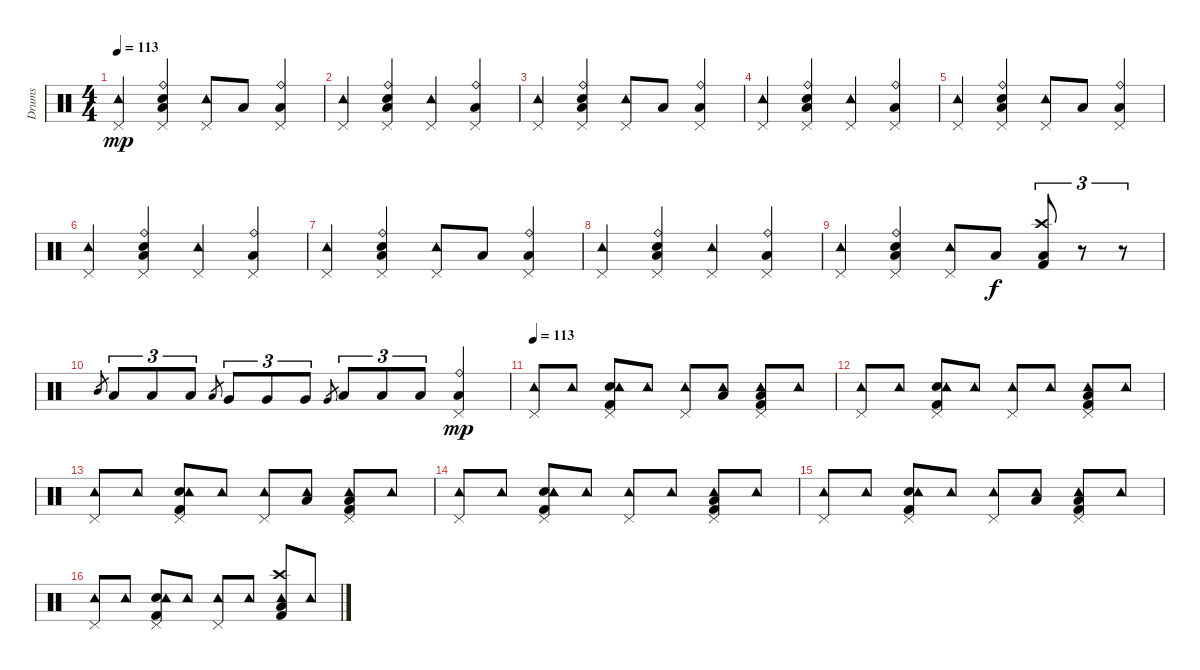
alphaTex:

\track ("Drums" "Drums") {instrument percussion}
\staff {score}
\articulation defaults
\ts (4 4)
\tempo 113
\clef neutral
\ks c
("Pedal Hi-Hat (hit)" "Tambourine (hit)").4{dy mp} ("Pedal Hi-Hat (hit)" "Snare (hit) 2" "Low Floor Tom (hit)" "Ride (bell)").4 ("Pedal Hi-Hat (hit)" "Tambourine (hit)").8 "Low Floor Tom (hit)".8 ("Pedal Hi-Hat (hit)" "Low Floor Tom (hit)" "Ride (bell)").4 |
("Pedal Hi-Hat (hit)" "Tambourine (hit)").4 ("Pedal Hi-Hat (hit)" "Snare (hit) 2" "Low Floor Tom (hit)" "Ride (bell)").4 ("Pedal Hi-Hat (hit)" "Tambourine (hit)").4 ("Pedal Hi-Hat (hit)" "Low Floor Tom (hit)" "Ride (bell)").4 |
("Pedal Hi-Hat (hit)" "Tambourine (hit)").4 ("Pedal Hi-Hat (hit)" "Snare (hit) 2" "Low Floor Tom (hit)" "Ride (bell)").4 ("Pedal Hi-Hat (hit)" "Tambourine (hit)").8 "Low Floor Tom (hit)".8 ("Pedal Hi-Hat (hit)" "Low Floor Tom (hit)" "Ride (bell)").4 |
("Pedal Hi-Hat (hit)" "Tambourine (hit)").4 ("Pedal Hi-Hat (hit)" "Snare (hit) 2" "Low Floor Tom (hit)" "Ride (bell)").4 ("Pedal Hi-Hat (hit)" "Tambourine (hit)").4 ("Pedal Hi-Hat (hit)" "Low Floor Tom (hit)" "Ride (bell)").4 |
("Pedal Hi-Hat (hit)" "Tambourine (hit)").4 ("Pedal Hi-Hat (hit)" "Snare (hit) 2" "Low Floor Tom (hit)" "Ride (bell)").4 ("Pedal Hi-Hat (hit)" "Tambourine (hit)").8 "Low Floor Tom (hit)".8 ("Pedal Hi-Hat (hit)" "Low Floor Tom (hit)" "Ride (bell)").4 |
("Pedal Hi-Hat (hit)" "Tambourine (hit)").4 ("Pedal Hi-Hat (hit)" "Snare (hit) 2" "Low Floor Tom (hit)" "Ride (bell)").4 ("Pedal Hi-Hat (hit)" "Tambourine (hit)").4 ("Pedal Hi-Hat (hit)" "Low Floor Tom (hit)" "Ride (bell)").4 |
("Pedal Hi-Hat (hit)" "Tambourine (hit)").4 ("Pedal Hi-Hat (hit)" "Snare (hit) 2" "Low Floor Tom (hit)" "Ride (bell)").4 ("Pedal Hi-Hat (hit)" "Tambourine (hit)").8 "Low Floor Tom (hit)".8 ("Pedal Hi-Hat (hit)" "Low Floor Tom (hit)" "Ride (bell)").4 |
("Pedal Hi-Hat (hit)" "Tambourine (hit)").4 ("Pedal Hi-Hat (hit)" "Snare (hit) 2" "Low Floor Tom (hit)" "Ride (bell)").4 ("Pedal Hi-Hat (hit)" "Tambourine (hit)").4 ("Pedal Hi-Hat (hit)" "Low Floor Tom (hit)" "Ride (bell)").4 |
("Pedal Hi-Hat (hit)" "Tambourine (hit)").4 ("Pedal Hi-Hat (hit)" "Snare (hit) 2" "Low Floor Tom (hit)" "Ride (bell)").4 ("Pedal Hi-Hat (hit)" "Tambourine (hit)").8 "Low Floor Tom (hit)".8{dy f} ("Crash high (hit)" "Kick (hit) 2" "Low Floor Tom (hit)").8{tu (3 2)} r.8{tu (3 2)} r.8{tu (3 2)} |
"Mid Tom (hit)".8{gr} "Low Tom (hit)".8{tu (3 2)} "Low Tom (hit)".8{tu (3 2)} "Low Tom (hit)".8{tu (3 2)} "Low Tom (hit)".8{gr} "Very Low Tom (hit)".8{tu (3 2)} "Very Low Tom (hit)".8{tu (3 2)} "Very Low Tom (hit)".8{tu (3 2)} "Very Low Tom (hit)".8{gr} "Low Floor Tom (hit)".8{tu (3 2)} "Low Floor Tom (hit)".8{tu (3 2)} "Low Floor Tom (hit)".8{tu (3 2)} ("Pedal Hi-Hat (hit)" "Low Floor Tom (hit)" "Ride (bell)").4{dy mp} |
\tempo 113
("Pedal Hi-Hat (hit)" "Tambourine (hit)").8 "Tambourine (hit)".8 ("Pedal Hi-Hat (hit)" "Kick (hit) 2" "Electric Snare (hit)" "Tambourine (hit)").8 "Tambourine (hit)".8 ("Pedal Hi-Hat (hit)" "Tambourine (hit)").8 ("Low Floor Tom (hit)" "Tambourine (hit)").8 ("Pedal Hi-Hat (hit)" "Kick (hit) 2" "Low Floor Tom (hit)" "Tambourine (hit)").8 "Tambourine (hit)".8 |
("Pedal Hi-Hat (hit)" "Tambourine (hit)").8 "Tambourine (hit)".8 ("Pedal Hi-Hat (hit)" "Kick (hit) 2" "Electric Snare (hit)" "Tambourine (hit)").8 "Tambourine (hit)".8 ("Pedal Hi-Hat (hit)" "Tambourine (hit)").8 "Tambourine (hit)".8 ("Pedal Hi-Hat (hit)" "Kick (hit) 2" "Low Floor Tom (hit)" "Tambourine (hit)").8 "Tambourine (hit)".8 |
("Pedal Hi-Hat (hit)" "Tambourine (hit)").8 "Tambourine (hit)".8 ("Pedal Hi-Hat (hit)" "Kick (hit) 2" "Electric Snare (hit)" "Tambourine (hit)").8 "Tambourine (hit)".8 ("Pedal Hi-Hat (hit)" "Tambourine (hit)").8 ("Low Floor Tom (hit)" "Tambourine (hit)").8 ("Pedal Hi-Hat (hit)" "Kick (hit) 2" "Low Floor Tom (hit)" "Tambourine (hit)").8 "Tambourine (hit)".8 |
("Pedal Hi-Hat (hit)" "Tambourine (hit)").8 "Tambourine (hit)".8 ("Pedal Hi-Hat (hit)" "Kick (hit) 2" "Electric Snare (hit)" "Tambourine (hit)").8 "Tambourine (hit)".8 ("Pedal Hi-Hat (hit)" "Tambourine (hit)").8 "Tambourine (hit)".8 ("Pedal Hi-Hat (hit)" "Kick (hit) 2" "Low Floor Tom (hit)" "Tambourine (hit)").8 "Tambourine (hit)".8 |
("Pedal Hi-Hat (hit)" "Tambourine (hit)").8 "Tambourine (hit)".8 ("Pedal Hi-Hat (hit)" "Kick (hit) 2" "Electric Snare (hit)" "Tambourine (hit)").8 "Tambourine (hit)".8 ("Pedal Hi-Hat (hit)" "Tambourine (hit)").8 ("Low Floor Tom (hit)" "Tambourine (hit)").8 ("Pedal Hi-Hat (hit)" "Kick (hit) 2" "Low Floor Tom (hit)" "Tambourine (hit)").8 "Tambourine (hit)".8 |
("Pedal Hi-Hat (hit)" "Tambourine (hit)").8 "Tambourine (hit)".8 ("Pedal Hi-Hat (hit)" "Kick (hit) 2" "Electric Snare (hit)" "Tambourine (hit)").8 "Tambourine (hit)".8 ("Pedal Hi-Hat (hit)" "Tambourine (hit)").8 "Tambourine (hit)".8 ("Crash high (hit)" "Kick (hit) 2" "Low Floor Tom (hit)" "Tambourine (hit)").8 "Tambourine (hit)".8
